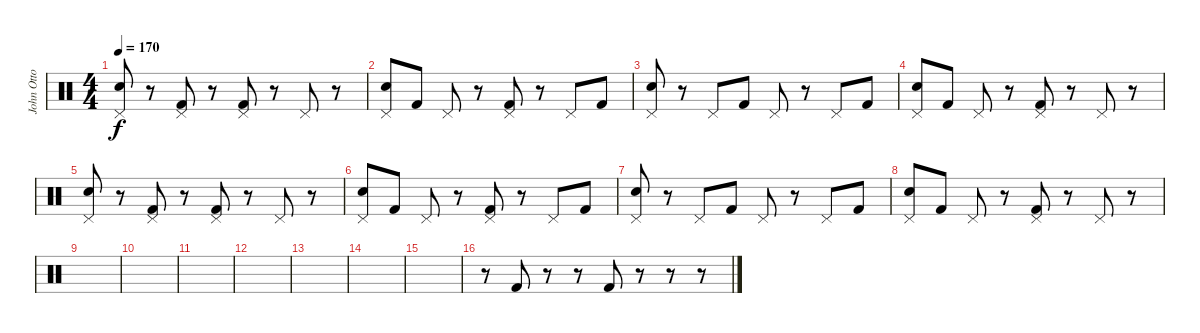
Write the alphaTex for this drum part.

\track ("John Otto" "John Otto") {instrument percussion}
\staff {score}
\articulation defaults
\ts (4 4)
\tempo 170
\clef neutral
\ks c
("Pedal Hi-Hat (hit)" "Snare (hit) 2").8{dy f} r.8 ("Pedal Hi-Hat (hit)" "Kick (hit) 2").8 r.8 ("Pedal Hi-Hat (hit)" "Kick (hit) 2").8 r.8 "Pedal Hi-Hat (hit)".8 r.8 |
("Pedal Hi-Hat (hit)" "Snare (hit) 2").8 "Kick (hit) 2".8 "Pedal Hi-Hat (hit)".8 r.8 ("Pedal Hi-Hat (hit)" "Kick (hit) 2").8 r.8 "Pedal Hi-Hat (hit)".8 "Kick (hit) 2".8 |
("Pedal Hi-Hat (hit)" "Snare (hit) 2").8 r.8 "Pedal Hi-Hat (hit)".8 "Kick (hit) 2".8 "Pedal Hi-Hat (hit)".8 r.8 "Pedal Hi-Hat (hit)".8 "Kick (hit) 2".8 |
("Pedal Hi-Hat (hit)" "Snare (hit) 2").8 "Kick (hit) 2".8 "Pedal Hi-Hat (hit)".8 r.8 ("Pedal Hi-Hat (hit)" "Kick (hit) 2").8 r.8 "Pedal Hi-Hat (hit)".8 r.8 |
("Pedal Hi-Hat (hit)" "Snare (hit) 2").8 r.8 ("Pedal Hi-Hat (hit)" "Kick (hit) 2").8 r.8 ("Pedal Hi-Hat (hit)" "Kick (hit) 2").8 r.8 "Pedal Hi-Hat (hit)".8 r.8 |
("Pedal Hi-Hat (hit)" "Snare (hit) 2").8 "Kick (hit) 2".8 "Pedal Hi-Hat (hit)".8 r.8 ("Pedal Hi-Hat (hit)" "Kick (hit) 2").8 r.8 "Pedal Hi-Hat (hit)".8 "Kick (hit) 2".8 |
("Pedal Hi-Hat (hit)" "Snare (hit) 2").8 r.8 "Pedal Hi-Hat (hit)".8 "Kick (hit) 2".8 "Pedal Hi-Hat (hit)".8 r.8 "Pedal Hi-Hat (hit)".8 "Kick (hit) 2".8 |
("Pedal Hi-Hat (hit)" "Snare (hit) 2").8 "Kick (hit) 2".8 "Pedal Hi-Hat (hit)".8 r.8 ("Pedal Hi-Hat (hit)" "Kick (hit) 2").8 r.8 "Pedal Hi-Hat (hit)".8 r.8 |
|
|
|
|
|
|
|
r.8 "Kick (hit) 2".8 r.8 r.8 "Kick (hit) 2".8 r.8 r.8 r.8
